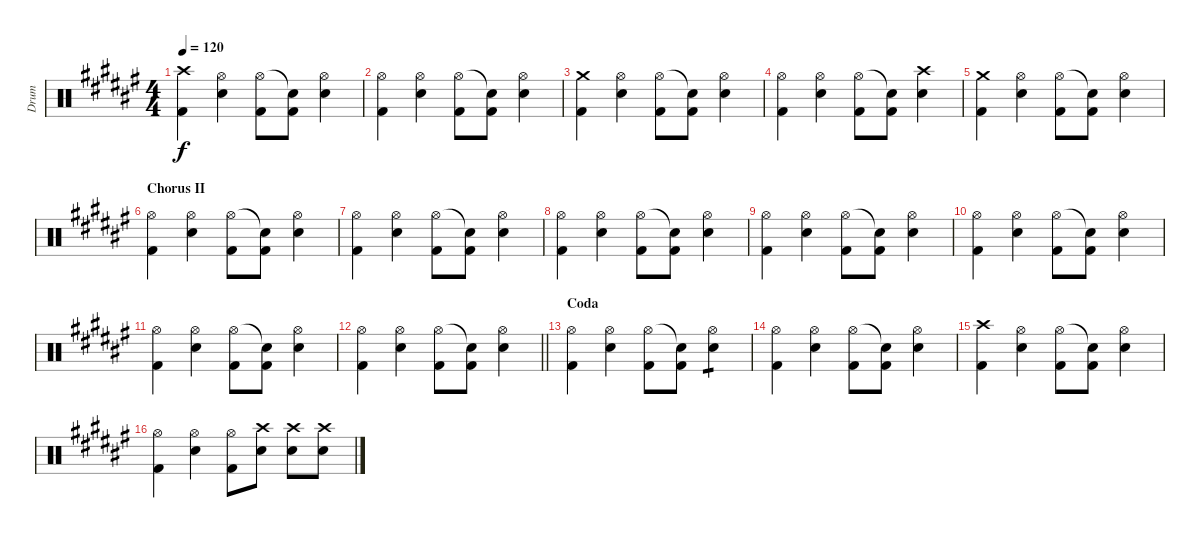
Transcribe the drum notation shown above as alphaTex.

\track ("Drum" "Drum") {instrument percussion}
\staff {score}
\articulation defaults
\ts (4 4)
\tempo 120
\clef neutral
\ks f#
("Crash high (hit)" "Kick (hit) 2").4{dy f} ("Hi-Hat (open)" "Electric Snare (hit)").4 ("Hi-Hat (open)" "Kick (hit) 2").8 ("Snare (hit)"{t} "Kick (hit) 2").8 ("Hi-Hat (open)" "Electric Snare (hit)").4 |
("Hi-Hat (open)" "Kick (hit) 2").4 ("Hi-Hat (open)" "Electric Snare (hit)").4 ("Hi-Hat (open)" "Kick (hit) 2").8 ("Snare (hit)"{t} "Kick (hit) 2").8 ("Hi-Hat (open)" "Electric Snare (hit)").4 |
("Crash medium (hit)" "Kick (hit) 2").4 ("Hi-Hat (open)" "Electric Snare (hit)").4 ("Hi-Hat (open)" "Kick (hit) 2").8 ("Snare (hit)"{t} "Kick (hit) 2").8 ("Hi-Hat (open)" "Electric Snare (hit)").4 |
("Hi-Hat (open)" "Kick (hit) 2").4 ("Hi-Hat (open)" "Electric Snare (hit)").4 ("Hi-Hat (open)" "Kick (hit) 2").8 ("Snare (hit)"{t} "Kick (hit) 2").8 ("Crash high (hit)" "Electric Snare (hit)").4 |
("Crash medium (hit)" "Kick (hit) 2").4 ("Hi-Hat (open)" "Electric Snare (hit)").4 ("Hi-Hat (open)" "Kick (hit) 2").8 ("Snare (hit)"{t} "Kick (hit) 2").8 ("Hi-Hat (open)" "Electric Snare (hit)").4 |
\section ("" "Chorus II")
("Hi-Hat (open)" "Kick (hit) 2").4 ("Hi-Hat (open)" "Electric Snare (hit)").4 ("Hi-Hat (open)" "Kick (hit) 2").8 ("Snare (hit)"{t} "Kick (hit) 2").8 ("Hi-Hat (open)" "Electric Snare (hit)").4 |
("Hi-Hat (open)" "Kick (hit) 2").4 ("Hi-Hat (open)" "Electric Snare (hit)").4 ("Hi-Hat (open)" "Kick (hit) 2").8 ("Snare (hit)"{t} "Kick (hit) 2").8 ("Hi-Hat (open)" "Electric Snare (hit)").4 |
("Hi-Hat (open)" "Kick (hit) 2").4 ("Hi-Hat (open)" "Electric Snare (hit)").4 ("Hi-Hat (open)" "Kick (hit) 2").8 ("Snare (hit)"{t} "Kick (hit) 2").8 ("Hi-Hat (open)" "Electric Snare (hit)").4 |
("Hi-Hat (open)" "Kick (hit) 2").4 ("Hi-Hat (open)" "Electric Snare (hit)").4 ("Hi-Hat (open)" "Kick (hit) 2").8 ("Snare (hit)"{t} "Kick (hit) 2").8 ("Hi-Hat (open)" "Electric Snare (hit)").4 |
("Hi-Hat (open)" "Kick (hit) 2").4 ("Hi-Hat (open)" "Electric Snare (hit)").4 ("Hi-Hat (open)" "Kick (hit) 2").8 ("Snare (hit)"{t} "Kick (hit) 2").8 ("Hi-Hat (open)" "Electric Snare (hit)").4 |
("Hi-Hat (open)" "Kick (hit) 2").4 ("Hi-Hat (open)" "Electric Snare (hit)").4 ("Hi-Hat (open)" "Kick (hit) 2").8 ("Snare (hit)"{t} "Kick (hit) 2").8 ("Hi-Hat (open)" "Electric Snare (hit)").4 |
\barLineRight lightlight
("Hi-Hat (open)" "Kick (hit) 2").4 ("Hi-Hat (open)" "Electric Snare (hit)").4 ("Hi-Hat (open)" "Kick (hit) 2").8 ("Snare (hit)"{t} "Kick (hit) 2").8 ("Hi-Hat (open)" "Electric Snare (hit)").4 |
\section ("" "Coda")
("Hi-Hat (open)" "Kick (hit) 2").4 ("Hi-Hat (open)" "Electric Snare (hit)").4 ("Hi-Hat (open)" "Kick (hit) 2").8 ("Snare (hit)"{t} "Kick (hit) 2").8 ("Hi-Hat (open)" "Electric Snare (hit)").4{tp 1} |
("Hi-Hat (open)" "Kick (hit) 2").4 ("Hi-Hat (open)" "Electric Snare (hit)").4 ("Hi-Hat (open)" "Kick (hit) 2").8 ("Snare (hit)"{t} "Kick (hit) 2").8 ("Hi-Hat (open)" "Electric Snare (hit)").4 |
("Crash high (hit)" "Kick (hit) 2").4 ("Hi-Hat (open)" "Electric Snare (hit)").4 ("Hi-Hat (open)" "Kick (hit) 2").8 ("Snare (hit)"{t} "Kick (hit) 2").8 ("Hi-Hat (open)" "Electric Snare (hit)").4 |
("Hi-Hat (open)" "Kick (hit) 2").4 ("Hi-Hat (open)" "Electric Snare (hit)").4 ("Hi-Hat (open)" "Kick (hit) 2").8 ("Crash high (hit)" "Electric Snare (hit)").8 ("Crash high (hit)" "Electric Snare (hit)").8 ("Crash high (hit)" "Electric Snare (hit)").8
